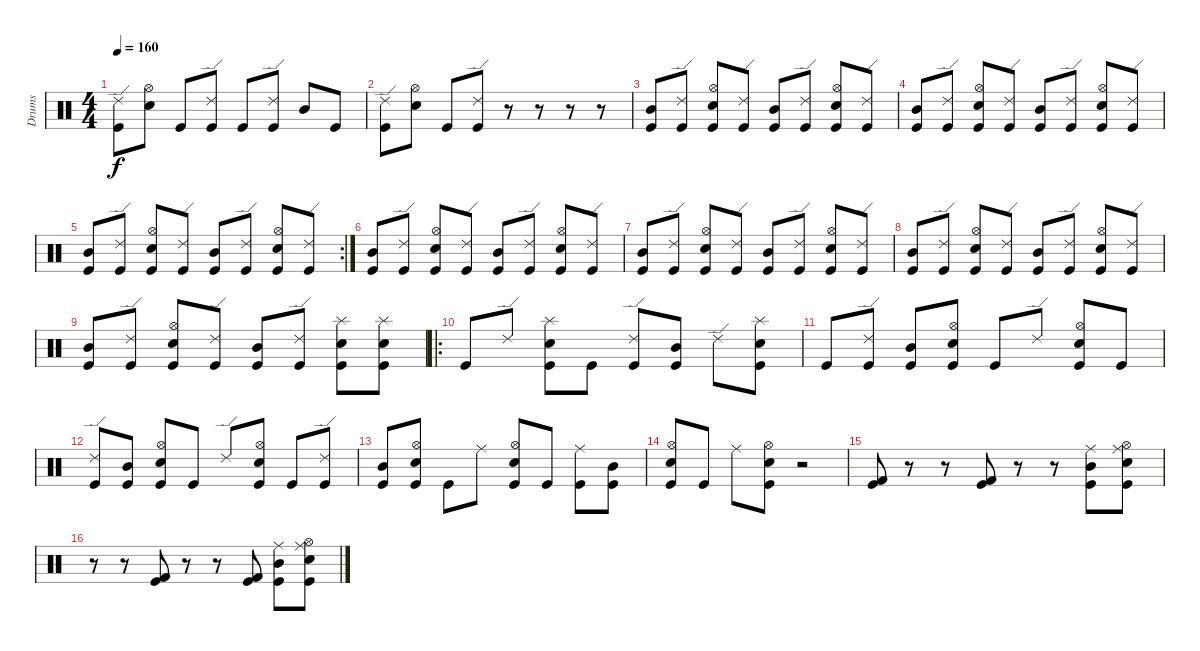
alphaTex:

\track ("Drums" "Drums") {instrument percussion}
\staff {score}
\articulation defaults
\ts (4 4)
\tempo 160
\clef neutral
\ks c
("Kick (hit)" "Ride (edge) 2").8{dy f} ("Hi-Hat (open)" "Snare (hit) 2").8 "Kick (hit)".8 ("Kick (hit)" "Ride (edge) 2").8 "Kick (hit)".8 ("Kick (hit)" "Ride (edge) 2").8 "Mid Tom (hit)".8 "Kick (hit)".8 |
("Kick (hit)" "Ride (edge) 2").8 ("Hi-Hat (open)" "Snare (hit) 2").8 "Kick (hit)".8 ("Kick (hit)" "Ride (edge) 2").8 r.8 r.8 r.8 r.8 |
("Mid Tom (hit)" "Kick (hit)").8 ("Kick (hit)" "Ride (edge) 2").8 ("Hi-Hat (open)" "Snare (hit) 2" "Kick (hit)").8 ("Kick (hit)" "Ride (edge) 2").8 ("Mid Tom (hit)" "Kick (hit)").8 ("Kick (hit)" "Ride (edge) 2").8 ("Hi-Hat (open)" "Snare (hit) 2" "Kick (hit)").8 ("Kick (hit)" "Ride (edge) 2").8 |
("Mid Tom (hit)" "Kick (hit)").8 ("Kick (hit)" "Ride (edge) 2").8 ("Hi-Hat (open)" "Snare (hit) 2" "Kick (hit)").8 ("Kick (hit)" "Ride (edge) 2").8 ("Mid Tom (hit)" "Kick (hit)").8 ("Kick (hit)" "Ride (edge) 2").8 ("Hi-Hat (open)" "Snare (hit) 2" "Kick (hit)").8 ("Kick (hit)" "Ride (edge) 2").8 |
\rc 2
("Mid Tom (hit)" "Kick (hit)").8 ("Kick (hit)" "Ride (edge) 2").8 ("Hi-Hat (open)" "Snare (hit) 2" "Kick (hit)").8 ("Kick (hit)" "Ride (edge) 2").8 ("Mid Tom (hit)" "Kick (hit)").8 ("Kick (hit)" "Ride (edge) 2").8 ("Hi-Hat (open)" "Snare (hit) 2" "Kick (hit)").8 ("Kick (hit)" "Ride (edge) 2").8 |
("Mid Tom (hit)" "Kick (hit)").8 ("Kick (hit)" "Ride (edge) 2").8 ("Hi-Hat (open)" "Snare (hit) 2" "Kick (hit)").8 ("Kick (hit)" "Ride (edge) 2").8 ("Mid Tom (hit)" "Kick (hit)").8 ("Kick (hit)" "Ride (edge) 2").8 ("Hi-Hat (open)" "Snare (hit) 2" "Kick (hit)").8 ("Kick (hit)" "Ride (edge) 2").8 |
("Mid Tom (hit)" "Kick (hit)").8 ("Kick (hit)" "Ride (edge) 2").8 ("Hi-Hat (open)" "Snare (hit) 2" "Kick (hit)").8 ("Kick (hit)" "Ride (edge) 2").8 ("Mid Tom (hit)" "Kick (hit)").8 ("Kick (hit)" "Ride (edge) 2").8 ("Hi-Hat (open)" "Snare (hit) 2" "Kick (hit)").8 ("Kick (hit)" "Ride (edge) 2").8 |
("Mid Tom (hit)" "Kick (hit)").8 ("Kick (hit)" "Ride (edge) 2").8 ("Hi-Hat (open)" "Snare (hit) 2" "Kick (hit)").8 ("Kick (hit)" "Ride (edge) 2").8 ("Mid Tom (hit)" "Kick (hit)").8 ("Kick (hit)" "Ride (edge) 2").8 ("Hi-Hat (open)" "Snare (hit) 2" "Kick (hit)").8 ("Kick (hit)" "Ride (edge) 2").8 |
("Mid Tom (hit)" "Kick (hit)").8 ("Kick (hit)" "Ride (edge) 2").8 ("Hi-Hat (open)" "Snare (hit) 2" "Kick (hit)").8 ("Kick (hit)" "Ride (edge) 2").8 ("Mid Tom (hit)" "Kick (hit)").8 ("Kick (hit)" "Ride (edge) 2").8 ("Splash (hit)" "Snare (hit) 2" "Kick (hit)").8 ("Splash (hit)" "Snare (hit) 2" "Kick (hit)").8 |
\ro "Kick (hit)".8 "Ride (edge) 2".8
("Splash (hit)" "Snare (hit) 2" "Kick (hit)").8 "Kick (hit)".8 ("Kick (hit)" "Ride (edge) 2").8 ("Mid Tom (hit)" "Kick (hit)").8 "Ride (edge) 2".8 ("Splash (hit)" "Snare (hit) 2" "Kick (hit)").8 |
"Kick (hit)".8 ("Kick (hit)" "Ride (edge) 2").8 ("Mid Tom (hit)" "Kick (hit)").8 ("Hi-Hat (open)" "Snare (hit) 2" "Kick (hit)").8 "Kick (hit)".8 "Ride (edge) 2".8 ("Hi-Hat (open)" "Snare (hit) 2" "Kick (hit)").8 "Kick (hit)".8 |
("Kick (hit)" "Ride (edge) 2").8 ("Mid Tom (hit)" "Kick (hit)").8 ("Hi-Hat (open)" "Snare (hit) 2" "Kick (hit)").8 "Kick (hit)".8 "Ride (edge) 2".8 ("Hi-Hat (open)" "Snare (hit) 2" "Kick (hit)").8 "Kick (hit)".8 ("Kick (hit)" "Ride (edge) 2").8 |
("Mid Tom (hit)" "Kick (hit)").8 ("Hi-Hat (open)" "Snare (hit) 2" "Kick (hit)").8 "Kick (hit)".8 "Ride (middle)".8 ("Hi-Hat (open)" "Snare (hit) 2" "Kick (hit)").8 "Kick (hit)".8 ("Kick (hit)" "Ride (middle)").8 ("Mid Tom (hit)" "Kick (hit)").8 |
("Hi-Hat (open)" "Snare (hit) 2" "Kick (hit)").8 "Kick (hit)".8 "Ride (middle)".8 ("Hi-Hat (open)" "Snare (hit) 2" "Kick (hit)").8 r.2 |
("Kick (hit)" "Kick (hit) 2").8 r.8 r.8 ("Kick (hit)" "Kick (hit) 2").8 r.8 r.8 ("Mid Tom (hit)" "Kick (hit)" "Ride (middle)").8 ("Hi-Hat (open)" "Snare (hit) 2" "Kick (hit)" "Ride (middle)").8 |
r.8 r.8 ("Kick (hit)" "Kick (hit) 2").8 r.8 r.8 ("Kick (hit)" "Kick (hit) 2").8 ("Mid Tom (hit)" "Kick (hit)" "Ride (middle)").8 ("Hi-Hat (open)" "Snare (hit) 2" "Kick (hit)" "Ride (middle)").8
